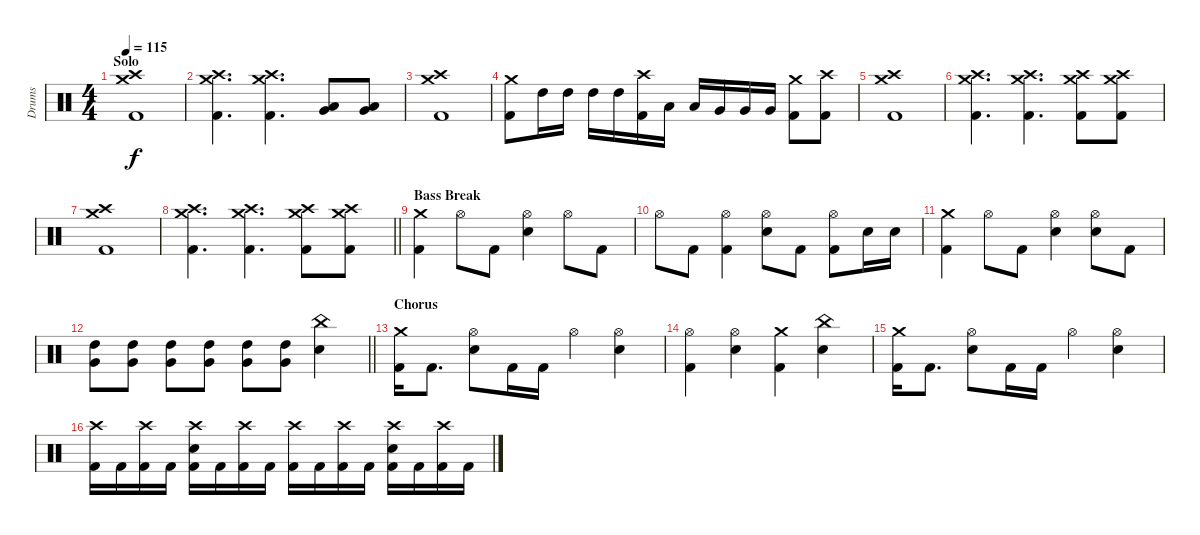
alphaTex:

\track ("Drums" "Drums") {instrument percussion}
\staff {score}
\articulation defaults
\ts (4 4)
\section ("" "Solo")
\tempo 115
\clef neutral
\ks c
("Crash medium (hit)" "Crash high (hit)" "Kick (hit) 2").1{dy f} |
("Crash medium (hit)" "Crash high (hit)" "Kick (hit) 2").4{d} ("Crash medium (hit)" "Crash high (hit)" "Kick (hit) 2").4{d} ("Low Tom (hit)" "Very Low Tom (hit)").8 ("Low Tom (hit)" "Very Low Tom (hit)").8 |
("Crash medium (hit)" "Crash high (hit)" "Kick (hit) 2").1 |
("Crash medium (hit)" "Kick (hit) 2").8 "High Tom (hit)".16 "High Tom (hit)".16 "High Tom (hit)".16 "High Tom (hit)".16 ("Crash high (hit)" "Kick (hit) 2").16 "Low Tom (hit)".16 "Low Tom (hit)".16 "Very Low Tom (hit)".16 "Very Low Tom (hit)".16 "Very Low Tom (hit)".16 ("Crash medium (hit)" "Kick (hit) 2").8 ("Crash high (hit)" "Kick (hit) 2").8 |
("Crash medium (hit)" "Crash high (hit)" "Kick (hit) 2").1 |
("Crash medium (hit)" "Crash high (hit)" "Kick (hit) 2").4{d} ("Crash medium (hit)" "Crash high (hit)" "Kick (hit) 2").4{d} ("Crash medium (hit)" "Crash high (hit)" "Kick (hit) 2").8 ("Crash medium (hit)" "Crash high (hit)" "Kick (hit) 2").8 |
("Crash medium (hit)" "Crash high (hit)" "Kick (hit) 2").1 |
\barLineRight lightlight
("Crash medium (hit)" "Crash high (hit)" "Kick (hit) 2").4{d} ("Crash medium (hit)" "Crash high (hit)" "Kick (hit) 2").4{d} ("Crash medium (hit)" "Crash high (hit)" "Kick (hit) 2").8 ("Crash medium (hit)" "Crash high (hit)" "Kick (hit) 2").8 |
\section ("" "Bass Break")
("Crash medium (hit)" "Kick (hit) 2").4 "Hi-Hat (open)".8 "Kick (hit) 2".8 ("Hi-Hat (open)" "Snare (hit) 2").4 "Hi-Hat (open)".8 "Kick (hit) 2".8 |
"Hi-Hat (open)".8 "Kick (hit) 2".8 ("Hi-Hat (open)" "Kick (hit) 2").4 ("Hi-Hat (open)" "Snare (hit) 2").8 "Kick (hit) 2".8 ("Hi-Hat (open)" "Kick (hit) 2").8 "Snare (hit) 2".16 "Snare (hit) 2".16 |
("Crash medium (hit)" "Kick (hit) 2").4 "Hi-Hat (open)".8 "Kick (hit) 2".8 ("Hi-Hat (open)" "Snare (hit) 2").4 ("Hi-Hat (open)" "Snare (hit) 2").8 "Kick (hit) 2".8 |
\barLineRight lightlight
("High Tom (hit)" "Very Low Tom (hit)").8 ("High Tom (hit)" "Very Low Tom (hit)").8 ("High Tom (hit)" "Very Low Tom (hit)").8 ("High Tom (hit)" "Very Low Tom (hit)").8 ("High Tom (hit)" "Very Low Tom (hit)").8 ("High Tom (hit)" "Very Low Tom (hit)").8 ("China (hit)" "Snare (hit) 2").4 |
\section ("" "Chorus")
("Crash medium (hit)" "Kick (hit) 2").16 "Kick (hit) 2".8{d} ("Hi-Hat (open)" "Snare (hit) 2").8 "Kick (hit) 2".16 "Kick (hit) 2".16 "Hi-Hat (open)".4 ("Hi-Hat (open)" "Snare (hit) 2").4 |
("Hi-Hat (open)" "Kick (hit) 2").4 ("Hi-Hat (open)" "Snare (hit) 2").4 ("Crash medium (hit)" "Kick (hit) 2").4 ("China (hit)" "Snare (hit) 2").4 |
("Crash medium (hit)" "Kick (hit) 2").16 "Kick (hit) 2".8{d} ("Hi-Hat (open)" "Snare (hit) 2").8 "Kick (hit) 2".16 "Kick (hit) 2".16 "Hi-Hat (open)".4 ("Hi-Hat (open)" "Snare (hit) 2").4 |
("Crash high (hit)" "Kick (hit) 2").16 "Kick (hit) 2".16 ("Crash high (hit)" "Kick (hit) 2").16 "Kick (hit) 2".16 ("Crash high (hit)" "Snare (hit) 2" "Kick (hit) 2").16 "Kick (hit) 2".16 ("Crash high (hit)" "Kick (hit) 2").16 "Kick (hit) 2".16 ("Crash high (hit)" "Kick (hit) 2").16 "Kick (hit) 2".16 ("Crash high (hit)" "Kick (hit) 2").16 "Kick (hit) 2".16 ("Crash high (hit)" "Snare (hit) 2" "Kick (hit) 2").16 "Kick (hit) 2".16 ("Crash high (hit)" "Kick (hit) 2").16 "Kick (hit) 2".16
